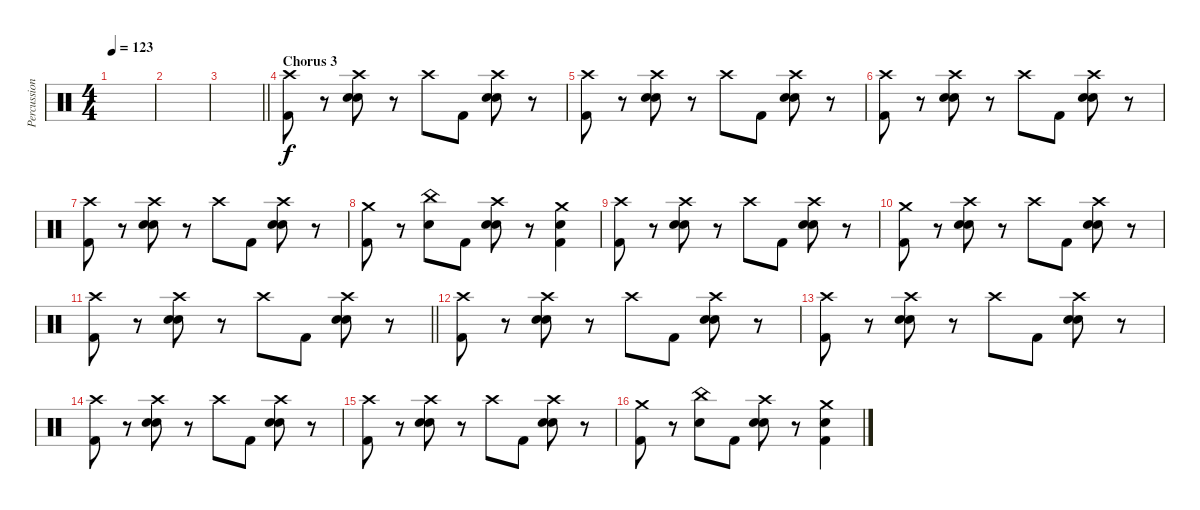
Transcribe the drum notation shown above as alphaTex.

\track ("Percussion" "Percussion") {instrument percussion}
\staff {score}
\articulation defaults
\ts (4 4)
\tempo 123
\clef neutral
\ks c
|
|
\barLineRight lightlight
|
\section ("" "Chorus 3")
("Crash high (hit)" "Kick (hit) 2").8 r.8 ("Crash high (hit)" "Hand Clap (hit)" "Snare (hit) 2").8 r.8 "Crash high (hit)".8 "Kick (hit) 2".8 ("Crash high (hit)" "Hand Clap (hit)" "Snare (hit) 2").8 r.8 |
("Crash high (hit)" "Kick (hit) 2").8 r.8 ("Crash high (hit)" "Hand Clap (hit)" "Snare (hit) 2").8 r.8 "Crash high (hit)".8 "Kick (hit) 2".8 ("Crash high (hit)" "Hand Clap (hit)" "Snare (hit) 2").8 r.8 |
("Crash high (hit)" "Kick (hit) 2").8 r.8 ("Crash high (hit)" "Hand Clap (hit)" "Snare (hit) 2").8 r.8 "Crash high (hit)".8 "Kick (hit) 2".8 ("Crash high (hit)" "Hand Clap (hit)" "Snare (hit) 2").8 r.8 |
("Crash high (hit)" "Kick (hit) 2").8 r.8 ("Crash high (hit)" "Hand Clap (hit)" "Snare (hit) 2").8 r.8 "Crash high (hit)".8 "Kick (hit) 2".8 ("Crash high (hit)" "Hand Clap (hit)" "Snare (hit) 2").8 r.8 |
("Crash medium (hit)" "Kick (hit) 2").8 r.8 ("China (hit)" "Hand Clap (hit)").8 "Kick (hit) 2".8 ("Crash high (hit)" "Hand Clap (hit)" "Snare (hit) 2").8 r.8 ("Crash medium (hit)" "Hand Clap (hit)" "Kick (hit) 2").4 |
("Crash high (hit)" "Kick (hit) 2").8 r.8 ("Crash high (hit)" "Hand Clap (hit)" "Snare (hit) 2").8 r.8 "Crash high (hit)".8 "Kick (hit) 2".8 ("Crash high (hit)" "Hand Clap (hit)" "Snare (hit) 2").8 r.8 |
("Crash medium (hit)" "Kick (hit) 2").8 r.8 ("Crash high (hit)" "Hand Clap (hit)" "Snare (hit) 2").8 r.8 "Crash high (hit)".8 "Kick (hit) 2".8 ("Crash high (hit)" "Hand Clap (hit)" "Snare (hit) 2").8 r.8 |
\barLineRight lightlight
("Crash high (hit)" "Kick (hit) 2").8 r.8 ("Crash high (hit)" "Hand Clap (hit)" "Snare (hit) 2").8 r.8 "Crash high (hit)".8 "Kick (hit) 2".8 ("Crash high (hit)" "Hand Clap (hit)" "Snare (hit) 2").8 r.8 |
("Crash high (hit)" "Kick (hit) 2").8 r.8 ("Crash high (hit)" "Hand Clap (hit)" "Snare (hit) 2").8 r.8 "Crash high (hit)".8 "Kick (hit) 2".8 ("Crash high (hit)" "Hand Clap (hit)" "Snare (hit) 2").8 r.8 |
("Crash high (hit)" "Kick (hit) 2").8 r.8 ("Crash high (hit)" "Hand Clap (hit)" "Snare (hit) 2").8 r.8 "Crash high (hit)".8 "Kick (hit) 2".8 ("Crash high (hit)" "Hand Clap (hit)" "Snare (hit) 2").8 r.8 |
("Crash high (hit)" "Kick (hit) 2").8 r.8 ("Crash high (hit)" "Hand Clap (hit)" "Snare (hit) 2").8 r.8 "Crash high (hit)".8 "Kick (hit) 2".8 ("Crash high (hit)" "Hand Clap (hit)" "Snare (hit) 2").8 r.8 |
("Crash high (hit)" "Kick (hit) 2").8 r.8 ("Crash high (hit)" "Hand Clap (hit)" "Snare (hit) 2").8 r.8 "Crash high (hit)".8 "Kick (hit) 2".8 ("Crash high (hit)" "Hand Clap (hit)" "Snare (hit) 2").8 r.8 |
("Crash medium (hit)" "Kick (hit) 2").8 r.8 ("China (hit)" "Hand Clap (hit)").8 "Kick (hit) 2".8 ("Crash high (hit)" "Hand Clap (hit)" "Snare (hit) 2").8 r.8 ("Crash medium (hit)" "Hand Clap (hit)" "Kick (hit) 2").4
